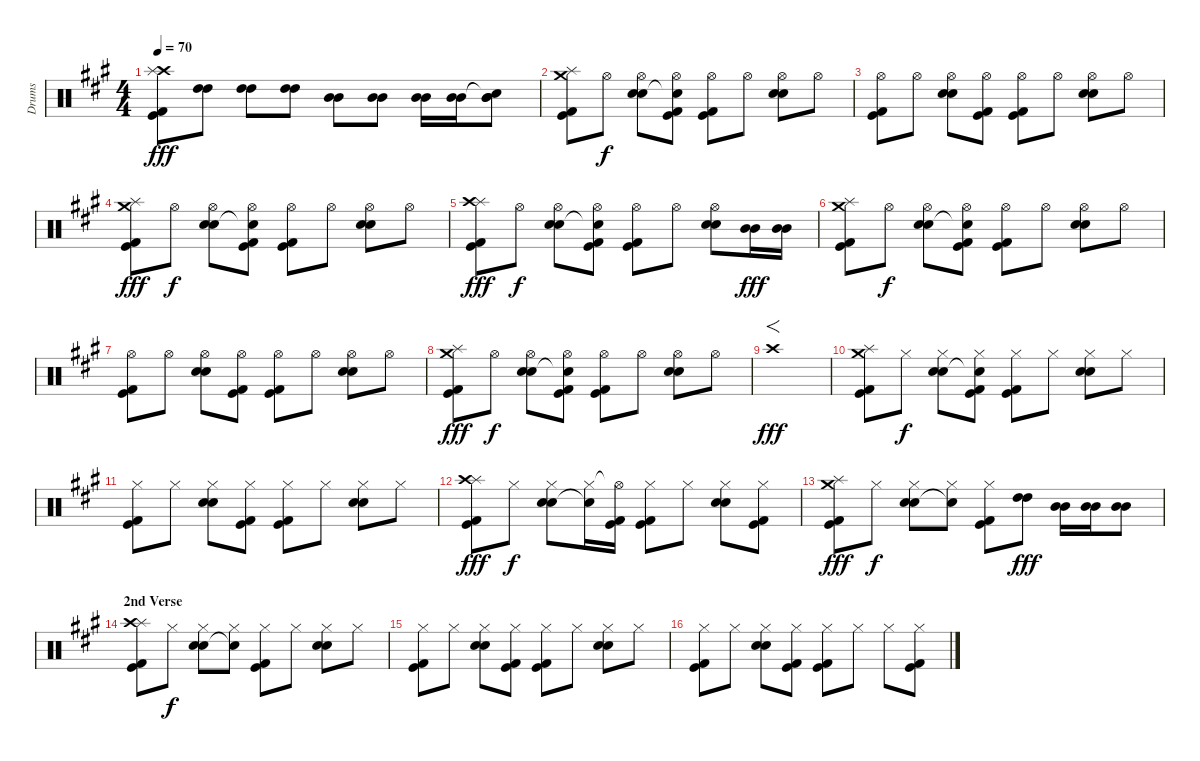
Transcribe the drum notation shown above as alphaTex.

\track ("Drums" "Drums") {instrument percussion}
\staff {score}
\articulation defaults
\ts (4 4)
\tempo 70
\clef neutral
\ks a
("Crash high (hit)" "Splash (hit)" "Kick (hit)" "Kick (hit) 2").8{dy fff} ("High Tom (hit)" "High Tom (hit)").8 ("High Tom (hit)" "High Tom (hit)").8 ("High Tom (hit)" "High Tom (hit)").8 ("Mid Tom (hit)" "Mid Tom (hit)").8 ("Mid Tom (hit)" "Mid Tom (hit)").8 ("Mid Tom (hit)" "Mid Tom (hit)").16 ("Mid Tom (hit)" "Mid Tom (hit)").16 ("Snare (hit)"{t} "Mid Tom (hit)" "Mid Tom (hit)").8 |
("Splash (hit)" "Crash medium (hit)" "Kick (hit)" "Kick (hit) 2").8 "Hi-Hat (open)".8{dy f} ("Hi-Hat (open)" "Electric Snare (hit)" "Snare (hit) 2").8 ("Hi-Hat (open)" "Snare (hit)"{t} "Kick (hit)" "Kick (hit) 2").8 ("Hi-Hat (open)" "Kick (hit)" "Kick (hit) 2").8 "Hi-Hat (open)".8 ("Hi-Hat (open)" "Electric Snare (hit)" "Snare (hit) 2").8 "Hi-Hat (open)".8 |
("Hi-Hat (open)" "Kick (hit)" "Kick (hit) 2").8 "Hi-Hat (open)".8 ("Hi-Hat (open)" "Electric Snare (hit)" "Snare (hit) 2").8 ("Hi-Hat (open)" "Kick (hit)" "Kick (hit) 2").8 ("Hi-Hat (open)" "Kick (hit)" "Kick (hit) 2").8 "Hi-Hat (open)".8 ("Hi-Hat (open)" "Electric Snare (hit)" "Snare (hit) 2").8 "Hi-Hat (open)".8 |
("Splash (hit)" "Crash medium (hit)" "Kick (hit)" "Kick (hit) 2").8{dy fff} "Hi-Hat (open)".8{dy f} ("Hi-Hat (open)" "Electric Snare (hit)" "Snare (hit) 2").8 ("Hi-Hat (open)" "Snare (hit)"{t} "Kick (hit)" "Kick (hit) 2").8 ("Hi-Hat (open)" "Kick (hit)" "Kick (hit) 2").8 "Hi-Hat (open)".8 ("Hi-Hat (open)" "Electric Snare (hit)" "Snare (hit) 2").8 "Hi-Hat (open)".8 |
("Splash (hit)" "Crash high (hit)" "Kick (hit)" "Kick (hit) 2").8{dy fff} "Hi-Hat (open)".8{dy f} ("Hi-Hat (open)" "Electric Snare (hit)" "Snare (hit) 2").8 ("Hi-Hat (open)" "Snare (hit)"{t} "Kick (hit)" "Kick (hit) 2").8 ("Hi-Hat (open)" "Kick (hit)" "Kick (hit) 2").8 "Hi-Hat (open)".8 ("Hi-Hat (open)" "Electric Snare (hit)" "Snare (hit) 2").8 ("Mid Tom (hit)" "Mid Tom (hit)").16{dy fff} ("Mid Tom (hit)" "Mid Tom (hit)").16 |
("Splash (hit)" "Crash medium (hit)" "Kick (hit)" "Kick (hit) 2").8 "Hi-Hat (open)".8{dy f} ("Hi-Hat (open)" "Electric Snare (hit)" "Snare (hit) 2").8 ("Hi-Hat (open)" "Snare (hit)"{t} "Kick (hit)" "Kick (hit) 2").8 ("Hi-Hat (open)" "Kick (hit)" "Kick (hit) 2").8 "Hi-Hat (open)".8 ("Hi-Hat (open)" "Electric Snare (hit)" "Snare (hit) 2").8 "Hi-Hat (open)".8 |
("Hi-Hat (open)" "Kick (hit)" "Kick (hit) 2").8 "Hi-Hat (open)".8 ("Hi-Hat (open)" "Electric Snare (hit)" "Snare (hit) 2").8 ("Hi-Hat (open)" "Kick (hit)" "Kick (hit) 2").8 ("Hi-Hat (open)" "Kick (hit)" "Kick (hit) 2").8 "Hi-Hat (open)".8 ("Hi-Hat (open)" "Electric Snare (hit)" "Snare (hit) 2").8 "Hi-Hat (open)".8 |
("Splash (hit)" "Crash medium (hit)" "Kick (hit)" "Kick (hit) 2").8{dy fff} "Hi-Hat (open)".8{dy f} ("Hi-Hat (open)" "Electric Snare (hit)" "Snare (hit) 2").8 ("Hi-Hat (open)" "Snare (hit)"{t} "Kick (hit)" "Kick (hit) 2").8 ("Hi-Hat (open)" "Kick (hit)" "Kick (hit) 2").8 "Hi-Hat (open)".8 ("Hi-Hat (open)" "Electric Snare (hit)" "Snare (hit) 2").8 "Hi-Hat (open)".8 |
"Crash high (hit)"{tr (49 64)}.1{f dy fff} |
("Splash (hit)" "Crash medium (hit)" "Kick (hit)" "Kick (hit) 2").8 "Hi-Hat (closed)".8{dy f} ("Hi-Hat (closed)" "Electric Snare (hit)" "Snare (hit) 2").8 ("Hi-Hat (closed)" "Snare (hit)"{t} "Kick (hit)" "Kick (hit) 2").8 ("Hi-Hat (closed)" "Kick (hit)" "Kick (hit) 2").8 "Hi-Hat (closed)".8 ("Hi-Hat (closed)" "Electric Snare (hit)" "Snare (hit) 2").8 "Hi-Hat (closed)".8 |
("Hi-Hat (closed)" "Kick (hit)" "Kick (hit) 2").8 "Hi-Hat (closed)".8 ("Hi-Hat (closed)" "Electric Snare (hit)" "Snare (hit) 2").8 ("Hi-Hat (closed)" "Kick (hit)" "Kick (hit) 2").8 ("Hi-Hat (closed)" "Kick (hit)" "Kick (hit) 2").8 "Hi-Hat (closed)".8 ("Hi-Hat (closed)" "Electric Snare (hit)" "Snare (hit) 2").8 "Hi-Hat (closed)".8 |
("Splash (hit)" "Crash high (hit)" "Kick (hit)" "Kick (hit) 2").8{dy fff} "Hi-Hat (closed)".8{dy f} ("Hi-Hat (closed)" "Electric Snare (hit)" "Snare (hit) 2").8 ("Hi-Hat (closed)" "Snare (hit)"{t}).16 ("Hi-Hat (open)"{t} "Kick (hit)" "Kick (hit) 2").16 ("Hi-Hat (closed)" "Kick (hit)" "Kick (hit) 2").8 "Hi-Hat (closed)".8 ("Hi-Hat (closed)" "Electric Snare (hit)" "Snare (hit) 2").8 ("Hi-Hat (closed)" "Kick (hit)" "Kick (hit) 2").8 |
("Splash (hit)" "Crash medium (hit)" "Kick (hit)" "Kick (hit) 2").8{dy fff} "Hi-Hat (closed)".8{dy f} ("Hi-Hat (closed)" "Electric Snare (hit)" "Snare (hit) 2").8 ("Hi-Hat (closed)" "Snare (hit)"{t}).8 ("Hi-Hat (closed)" "Kick (hit)" "Kick (hit) 2").8 ("High Tom (hit)" "High Tom (hit)").8{dy fff} ("Mid Tom (hit)" "Mid Tom (hit)").16 ("Mid Tom (hit)" "Mid Tom (hit)").16 ("Mid Tom (hit)" "Mid Tom (hit)").8 |
\section ("" "2nd Verse")
("Splash (hit)" "Crash high (hit)" "Kick (hit)" "Kick (hit) 2").8 "Hi-Hat (closed)".8{dy f} ("Hi-Hat (closed)" "Electric Snare (hit)" "Snare (hit) 2").8 ("Hi-Hat (closed)" "Snare (hit)"{t}).8 ("Hi-Hat (closed)" "Kick (hit)" "Kick (hit) 2").8 "Hi-Hat (closed)".8 ("Hi-Hat (closed)" "Electric Snare (hit)" "Snare (hit) 2").8 "Hi-Hat (closed)".8 |
("Hi-Hat (closed)" "Kick (hit)" "Kick (hit) 2").8 "Hi-Hat (closed)".8 ("Hi-Hat (closed)" "Electric Snare (hit)" "Snare (hit) 2").8 ("Hi-Hat (closed)" "Kick (hit)" "Kick (hit) 2").8 ("Hi-Hat (closed)" "Kick (hit)" "Kick (hit) 2").8 "Hi-Hat (closed)".8 ("Hi-Hat (closed)" "Electric Snare (hit)" "Snare (hit) 2").8 "Hi-Hat (closed)".8 |
("Hi-Hat (closed)" "Kick (hit)" "Kick (hit) 2").8 "Hi-Hat (closed)".8 ("Hi-Hat (closed)" "Electric Snare (hit)" "Snare (hit) 2").8 ("Hi-Hat (closed)" "Kick (hit)" "Kick (hit) 2").8 ("Hi-Hat (closed)" "Kick (hit)" "Kick (hit) 2").8 "Hi-Hat (closed)".8 "Hi-Hat (closed)".8 ("Hi-Hat (closed)" "Kick (hit)" "Kick (hit) 2").8
